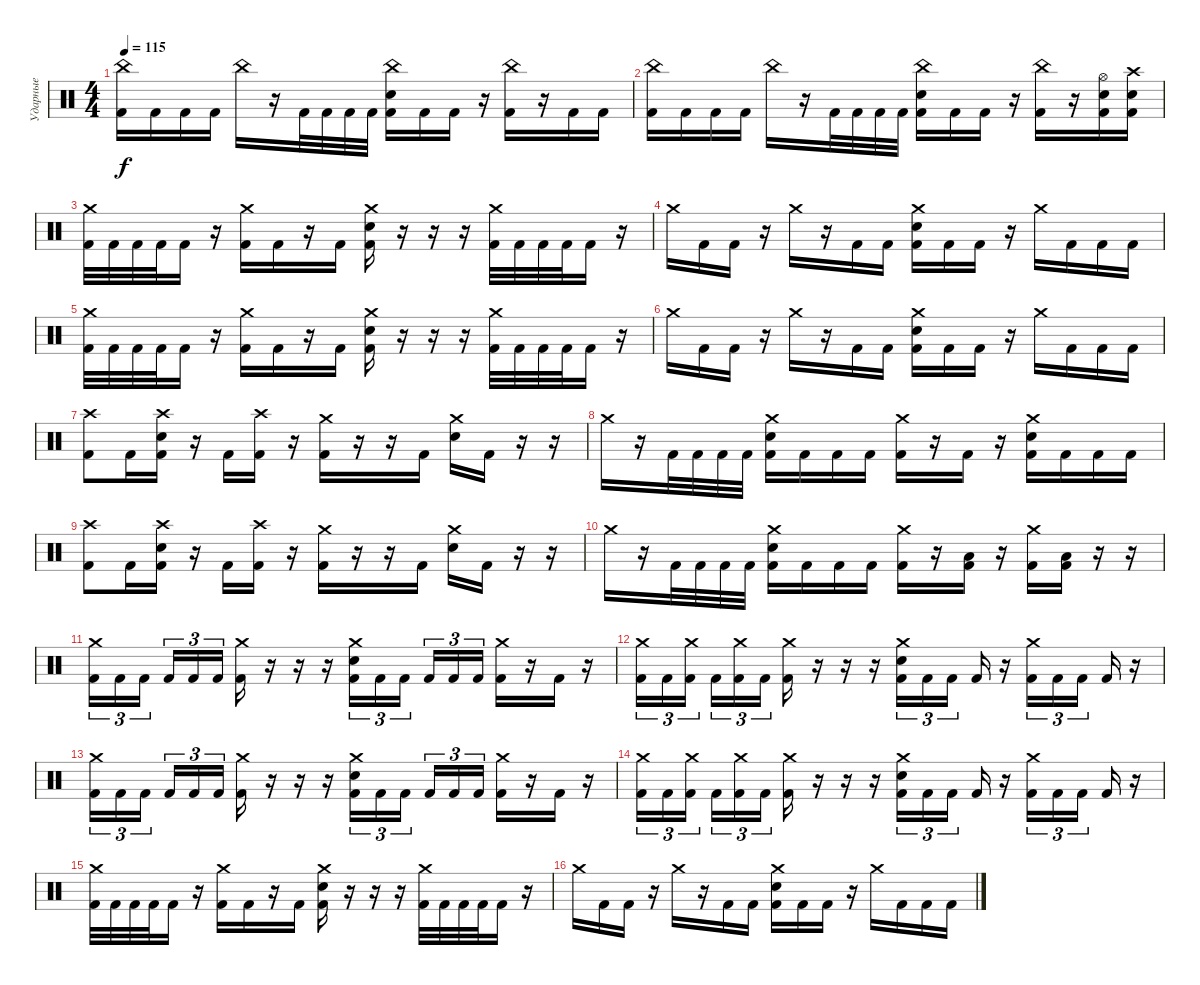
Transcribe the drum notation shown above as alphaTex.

\track ("Ударные" "Ударные") {instrument percussion}
\staff {score}
\articulation defaults
\ts (4 4)
\tempo 115
\clef neutral
\ks c
("China (hit)" "Kick (hit) 2").16{dy f} "Kick (hit) 2".16 "Kick (hit) 2".16 "Kick (hit) 2".16 "China (hit)".16 r.16 "Kick (hit) 2".32 "Kick (hit) 2".32 "Kick (hit) 2".32 "Kick (hit) 2".32 ("China (hit)" "Electric Snare (hit)" "Kick (hit) 2").16 "Kick (hit) 2".16 "Kick (hit) 2".16 r.16 ("China (hit)" "Kick (hit) 2").16 r.16 "Kick (hit) 2".16 "Kick (hit) 2".16 |
("China (hit)" "Kick (hit) 2").16 "Kick (hit) 2".16 "Kick (hit) 2".16 "Kick (hit) 2".16 "China (hit)".16 r.16 "Kick (hit) 2".32 "Kick (hit) 2".32 "Kick (hit) 2".32 "Kick (hit) 2".32 ("China (hit)" "Electric Snare (hit)" "Kick (hit) 2").16 "Kick (hit) 2".16 "Kick (hit) 2".16 r.16 ("China (hit)" "Kick (hit) 2").16 r.16 ("Hi-Hat (open)" "Electric Snare (hit)" "Kick (hit) 2").16 ("Crash high (hit)" "Electric Snare (hit)" "Kick (hit) 2").16 |
("Crash medium (hit)" "Kick (hit) 2").32 "Kick (hit) 2".32 "Kick (hit) 2".32 "Kick (hit) 2".32 "Kick (hit) 2".16 r.16 ("Crash medium (hit)" "Kick (hit) 2").16 "Kick (hit) 2".16 r.16 "Kick (hit) 2".16 ("Crash medium (hit)" "Electric Snare (hit)" "Kick (hit) 2").16 r.16 r.16 r.16 ("Crash medium (hit)" "Kick (hit) 2").32 "Kick (hit) 2".32 "Kick (hit) 2".32 "Kick (hit) 2".32 "Kick (hit) 2".16 r.16 |
"Crash medium (hit)".16 "Kick (hit) 2".16 "Kick (hit) 2".16 r.16 "Crash medium (hit)".16 r.16 "Kick (hit) 2".16 "Kick (hit) 2".16 ("Crash medium (hit)" "Electric Snare (hit)" "Kick (hit) 2").16 "Kick (hit) 2".16 "Kick (hit) 2".16 r.16 "Crash medium (hit)".16 "Kick (hit) 2".16 "Kick (hit) 2".16 "Kick (hit) 2".16 |
("Crash medium (hit)" "Kick (hit) 2").32 "Kick (hit) 2".32 "Kick (hit) 2".32 "Kick (hit) 2".32 "Kick (hit) 2".16 r.16 ("Crash medium (hit)" "Kick (hit) 2").16 "Kick (hit) 2".16 r.16 "Kick (hit) 2".16 ("Crash medium (hit)" "Electric Snare (hit)" "Kick (hit) 2").16 r.16 r.16 r.16 ("Crash medium (hit)" "Kick (hit) 2").32 "Kick (hit) 2".32 "Kick (hit) 2".32 "Kick (hit) 2".32 "Kick (hit) 2".16 r.16 |
"Crash medium (hit)".16 "Kick (hit) 2".16 "Kick (hit) 2".16 r.16 "Crash medium (hit)".16 r.16 "Kick (hit) 2".16 "Kick (hit) 2".16 ("Crash medium (hit)" "Electric Snare (hit)" "Kick (hit) 2").16 "Kick (hit) 2".16 "Kick (hit) 2".16 r.16 "Crash medium (hit)".16 "Kick (hit) 2".16 "Kick (hit) 2".16 "Kick (hit) 2".16 |
("Crash high (hit)" "Kick (hit) 2").8 "Kick (hit) 2".16 ("Crash high (hit)" "Electric Snare (hit)" "Kick (hit) 2").16 r.16 "Kick (hit) 2".16 ("Crash high (hit)" "Kick (hit) 2").16 r.16 ("Crash medium (hit)" "Kick (hit) 2").16 r.16 r.16 "Kick (hit) 2".16 ("Crash medium (hit)" "Electric Snare (hit)").16 "Kick (hit) 2".16 r.16 r.16 |
"Crash medium (hit)".16 r.16 "Kick (hit) 2".32 "Kick (hit) 2".32 "Kick (hit) 2".32 "Kick (hit) 2".32 ("Crash medium (hit)" "Electric Snare (hit)" "Kick (hit) 2").16 "Kick (hit) 2".16 "Kick (hit) 2".16 "Kick (hit) 2".16 ("Crash medium (hit)" "Kick (hit) 2").16 r.16 "Kick (hit) 2".16 r.16 ("Crash medium (hit)" "Electric Snare (hit)" "Kick (hit) 2").16 "Kick (hit) 2".16 "Kick (hit) 2".16 "Kick (hit) 2".16 |
("Crash high (hit)" "Kick (hit) 2").8 "Kick (hit) 2".16 ("Crash high (hit)" "Electric Snare (hit)" "Kick (hit) 2").16 r.16 "Kick (hit) 2".16 ("Crash high (hit)" "Kick (hit) 2").16 r.16 ("Crash medium (hit)" "Kick (hit) 2").16 r.16 r.16 "Kick (hit) 2".16 ("Crash medium (hit)" "Electric Snare (hit)").16 "Kick (hit) 2".16 r.16 r.16 |
"Crash medium (hit)".16 r.16 "Kick (hit) 2".32 "Kick (hit) 2".32 "Kick (hit) 2".32 "Kick (hit) 2".32 ("Crash medium (hit)" "Electric Snare (hit)" "Kick (hit) 2").16 "Kick (hit) 2".16 "Kick (hit) 2".16 "Kick (hit) 2".16 ("Crash medium (hit)" "Kick (hit) 2").16 r.16 ("Low Tom (hit)" "Kick (hit) 2").16 r.16 ("Crash medium (hit)" "Kick (hit) 2").16 ("Low Floor Tom (hit)" "Kick (hit) 2").16 r.16 r.16 |
("Crash medium (hit)" "Kick (hit) 2").16{tu (3 2)} "Kick (hit) 2".16{tu (3 2)} "Kick (hit) 2".16{tu (3 2) beam splitsecondary} "Kick (hit) 2".16{tu (3 2)} "Kick (hit) 2".16{tu (3 2)} "Kick (hit) 2".16{tu (3 2)} ("Crash medium (hit)" "Kick (hit) 2").16 r.16 r.16 r.16 ("Crash medium (hit)" "Electric Snare (hit)" "Kick (hit) 2").16{tu (3 2)} "Kick (hit) 2".16{tu (3 2)} "Kick (hit) 2".16{tu (3 2) beam splitsecondary} "Kick (hit) 2".16{tu (3 2)} "Kick (hit) 2".16{tu (3 2)} "Kick (hit) 2".16{tu (3 2)} ("Crash medium (hit)" "Kick (hit) 2").16 r.16 "Kick (hit) 2".16 r.16 |
("Crash medium (hit)" "Kick (hit) 2").16{tu (3 2)} "Kick (hit) 2".16{tu (3 2)} ("Crash medium (hit)" "Kick (hit) 2").16{tu (3 2) beam splitsecondary} "Kick (hit) 2".16{tu (3 2)} ("Crash medium (hit)" "Kick (hit) 2").16{tu (3 2)} "Kick (hit) 2".16{tu (3 2)} ("Crash medium (hit)" "Kick (hit) 2").16 r.16 r.16 r.16 ("Crash medium (hit)" "Electric Snare (hit)" "Kick (hit) 2").16{tu (3 2)} "Kick (hit) 2".16{tu (3 2)} "Kick (hit) 2".16{tu (3 2) beam splitsecondary} "Kick (hit) 2".16 r.16 ("Crash medium (hit)" "Kick (hit) 2").16{tu (3 2)} "Kick (hit) 2".16{tu (3 2)} "Kick (hit) 2".16{tu (3 2) beam splitsecondary} "Kick (hit) 2".16 r.16 |
("Crash medium (hit)" "Kick (hit) 2").16{tu (3 2)} "Kick (hit) 2".16{tu (3 2)} "Kick (hit) 2".16{tu (3 2) beam splitsecondary} "Kick (hit) 2".16{tu (3 2)} "Kick (hit) 2".16{tu (3 2)} "Kick (hit) 2".16{tu (3 2)} ("Crash medium (hit)" "Kick (hit) 2").16 r.16 r.16 r.16 ("Crash medium (hit)" "Electric Snare (hit)" "Kick (hit) 2").16{tu (3 2)} "Kick (hit) 2".16{tu (3 2)} "Kick (hit) 2".16{tu (3 2) beam splitsecondary} "Kick (hit) 2".16{tu (3 2)} "Kick (hit) 2".16{tu (3 2)} "Kick (hit) 2".16{tu (3 2)} ("Crash medium (hit)" "Kick (hit) 2").16 r.16 "Kick (hit) 2".16 r.16 |
("Crash medium (hit)" "Kick (hit) 2").16{tu (3 2)} "Kick (hit) 2".16{tu (3 2)} ("Crash medium (hit)" "Kick (hit) 2").16{tu (3 2) beam splitsecondary} "Kick (hit) 2".16{tu (3 2)} ("Crash medium (hit)" "Kick (hit) 2").16{tu (3 2)} "Kick (hit) 2".16{tu (3 2)} ("Crash medium (hit)" "Kick (hit) 2").16 r.16 r.16 r.16 ("Crash medium (hit)" "Electric Snare (hit)" "Kick (hit) 2").16{tu (3 2)} "Kick (hit) 2".16{tu (3 2)} "Kick (hit) 2".16{tu (3 2) beam splitsecondary} "Kick (hit) 2".16 r.16 ("Crash medium (hit)" "Kick (hit) 2").16{tu (3 2)} "Kick (hit) 2".16{tu (3 2)} "Kick (hit) 2".16{tu (3 2) beam splitsecondary} "Kick (hit) 2".16 r.16 |
("Crash medium (hit)" "Kick (hit) 2").32 "Kick (hit) 2".32 "Kick (hit) 2".32 "Kick (hit) 2".32 "Kick (hit) 2".16 r.16 ("Crash medium (hit)" "Kick (hit) 2").16 "Kick (hit) 2".16 r.16 "Kick (hit) 2".16 ("Crash medium (hit)" "Electric Snare (hit)" "Kick (hit) 2").16 r.16 r.16 r.16 ("Crash medium (hit)" "Kick (hit) 2").32 "Kick (hit) 2".32 "Kick (hit) 2".32 "Kick (hit) 2".32 "Kick (hit) 2".16 r.16 |
"Crash medium (hit)".16 "Kick (hit) 2".16 "Kick (hit) 2".16 r.16 "Crash medium (hit)".16 r.16 "Kick (hit) 2".16 "Kick (hit) 2".16 ("Crash medium (hit)" "Electric Snare (hit)" "Kick (hit) 2").16 "Kick (hit) 2".16 "Kick (hit) 2".16 r.16 "Crash medium (hit)".16 "Kick (hit) 2".16 "Kick (hit) 2".16 "Kick (hit) 2".16
